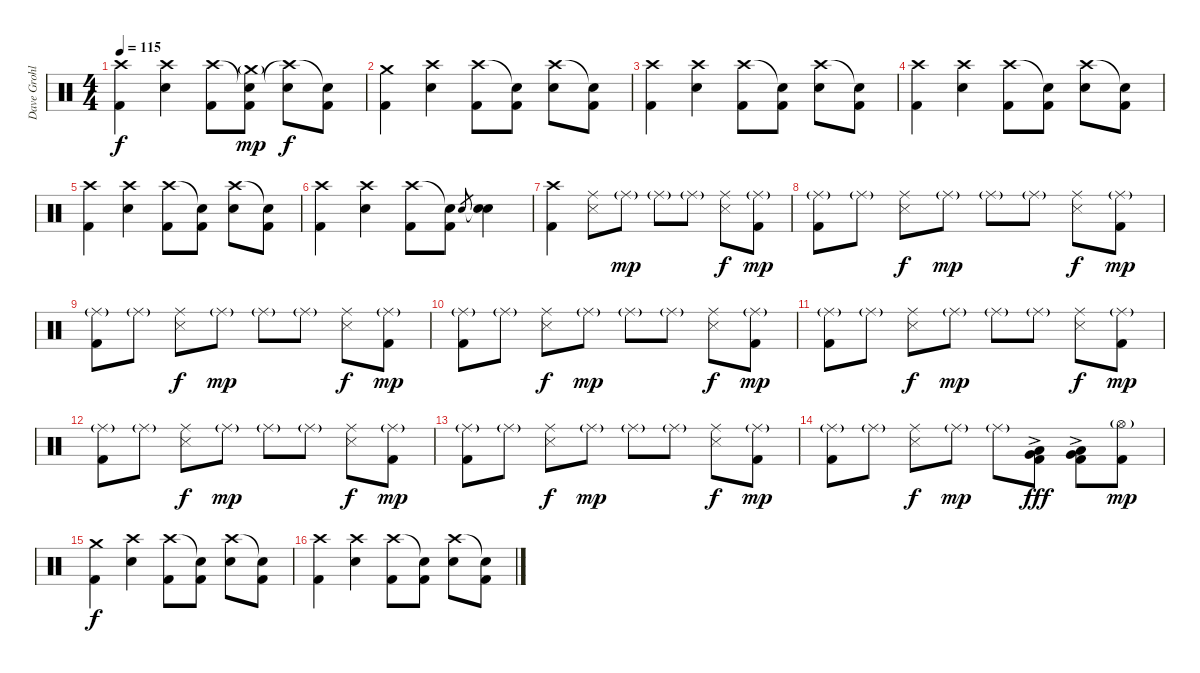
\track ("Dave Grohl - Drums" "Dave Grohl") {instrument percussion}
\staff {score}
\articulation defaults
\ts (4 4)
\tempo 115
\clef neutral
\ks c
("Crash high (hit)" "Kick (hit) 2").4{dy f} ("Crash high (hit)" "Electric Snare (hit)").4 ("Crash high (hit)" "Kick (hit) 2").8 ("Snare (hit)"{t} "Crash medium (hit)"{g} "Kick (hit) 2").8{dy mp} ("Crash high (hit)"{t} "Electric Snare (hit)").8{dy f} ("Snare (hit)"{t} "Kick (hit) 2").8 |
("Crash medium (hit)" "Kick (hit) 2").4 ("Crash high (hit)" "Electric Snare (hit)").4 ("Crash high (hit)" "Kick (hit) 2").8 ("Snare (hit)"{t} "Kick (hit) 2").8 ("Crash high (hit)" "Electric Snare (hit)").8 ("Snare (hit)"{t} "Kick (hit) 2").8 |
("Crash high (hit)" "Kick (hit) 2").4 ("Crash high (hit)" "Electric Snare (hit)").4 ("Crash high (hit)" "Kick (hit) 2").8 ("Snare (hit)"{t} "Kick (hit) 2").8 ("Crash high (hit)" "Electric Snare (hit)").8 ("Snare (hit)"{t} "Kick (hit) 2").8 |
("Crash high (hit)" "Kick (hit) 2").4 ("Crash high (hit)" "Electric Snare (hit)").4 ("Crash high (hit)" "Kick (hit) 2").8 ("Snare (hit)"{t} "Kick (hit) 2").8 ("Crash high (hit)" "Electric Snare (hit)").8 ("Snare (hit)"{t} "Kick (hit) 2").8 |
("Crash high (hit)" "Kick (hit) 2").4 ("Crash high (hit)" "Electric Snare (hit)").4 ("Crash high (hit)" "Kick (hit) 2").8 ("Snare (hit)"{t} "Kick (hit) 2").8 ("Crash high (hit)" "Electric Snare (hit)").8 ("Snare (hit)"{t} "Kick (hit) 2").8 |
("Crash high (hit)" "Kick (hit) 2").4 ("Crash high (hit)" "Electric Snare (hit)").4 ("Crash high (hit)" "Kick (hit) 2").8 ("Snare (hit)"{t} "Kick (hit) 2").8 "Electric Snare (hit)".8{gr} ("Snare (hit)"{t} "Electric Snare (hit)").4 |
("Crash high (hit)" "Kick (hit) 2").4 ("Ride (middle)" "Snare (side stick) 3").8 "Ride (middle)"{g}.8{dy mp} "Ride (middle)"{g}.8 "Ride (middle)"{g}.8 ("Ride (middle)" "Snare (side stick) 3").8{dy f} ("Ride (middle)"{g} "Kick (hit) 2").8{dy mp} |
("Ride (middle)"{g} "Kick (hit) 2").8 "Ride (middle)"{g}.8 ("Ride (middle)" "Snare (side stick) 3").8{dy f} "Ride (middle)"{g}.8{dy mp} "Ride (middle)"{g}.8 "Ride (middle)"{g}.8 ("Ride (middle)" "Snare (side stick) 3").8{dy f} ("Ride (middle)"{g} "Kick (hit) 2").8{dy mp} |
("Ride (middle)"{g} "Kick (hit) 2").8 "Ride (middle)"{g}.8 ("Ride (middle)" "Snare (side stick) 3").8{dy f} "Ride (middle)"{g}.8{dy mp} "Ride (middle)"{g}.8 "Ride (middle)"{g}.8 ("Ride (middle)" "Snare (side stick) 3").8{dy f} ("Ride (middle)"{g} "Kick (hit) 2").8{dy mp} |
("Ride (middle)"{g} "Kick (hit) 2").8 "Ride (middle)"{g}.8 ("Ride (middle)" "Snare (side stick) 3").8{dy f} "Ride (middle)"{g}.8{dy mp} "Ride (middle)"{g}.8 "Ride (middle)"{g}.8 ("Ride (middle)" "Snare (side stick) 3").8{dy f} ("Ride (middle)"{g} "Kick (hit) 2").8{dy mp} |
("Ride (middle)"{g} "Kick (hit) 2").8 "Ride (middle)"{g}.8 ("Ride (middle)" "Snare (side stick) 3").8{dy f} "Ride (middle)"{g}.8{dy mp} "Ride (middle)"{g}.8 "Ride (middle)"{g}.8 ("Ride (middle)" "Snare (side stick) 3").8{dy f} ("Ride (middle)"{g} "Kick (hit) 2").8{dy mp} |
("Ride (middle)"{g} "Kick (hit) 2").8 "Ride (middle)"{g}.8 ("Ride (middle)" "Snare (side stick) 3").8{dy f} "Ride (middle)"{g}.8{dy mp} "Ride (middle)"{g}.8 "Ride (middle)"{g}.8 ("Ride (middle)" "Snare (side stick) 3").8{dy f} ("Ride (middle)"{g} "Kick (hit) 2").8{dy mp} |
("Ride (middle)"{g} "Kick (hit) 2").8 "Ride (middle)"{g}.8 ("Ride (middle)" "Snare (side stick) 3").8{dy f} "Ride (middle)"{g}.8{dy mp} "Ride (middle)"{g}.8 "Ride (middle)"{g}.8 ("Ride (middle)" "Snare (side stick) 3").8{dy f} ("Ride (middle)"{g} "Kick (hit) 2").8{dy mp} |
("Ride (middle)"{g} "Kick (hit) 2").8 "Ride (middle)"{g}.8 ("Ride (middle)" "Snare (side stick) 3").8{dy f} "Ride (middle)"{g}.8{dy mp} "Ride (middle)"{g}.8 ("Very Low Tom (hit)"{ac} "Low Floor Tom (hit)"{ac} "Kick (hit) 2").8{dy fff} ("Very Low Tom (hit)"{ac} "Low Floor Tom (hit)"{ac} "Kick (hit) 2").8 ("Hi-Hat (open)"{g} "Kick (hit) 2").8{dy mp} |
("Crash medium (hit)" "Kick (hit) 2").4{dy f} ("Crash high (hit)" "Electric Snare (hit)").4 ("Crash high (hit)" "Kick (hit) 2").8 ("Snare (hit)"{t} "Kick (hit) 2").8 ("Crash high (hit)" "Electric Snare (hit)").8 ("Snare (hit)"{t} "Kick (hit) 2").8 |
("Crash high (hit)" "Kick (hit) 2").4 ("Crash high (hit)" "Electric Snare (hit)").4 ("Crash high (hit)" "Kick (hit) 2").8 ("Snare (hit)"{t} "Kick (hit) 2").8 ("Crash high (hit)" "Electric Snare (hit)").8 ("Snare (hit)"{t} "Kick (hit) 2").8
